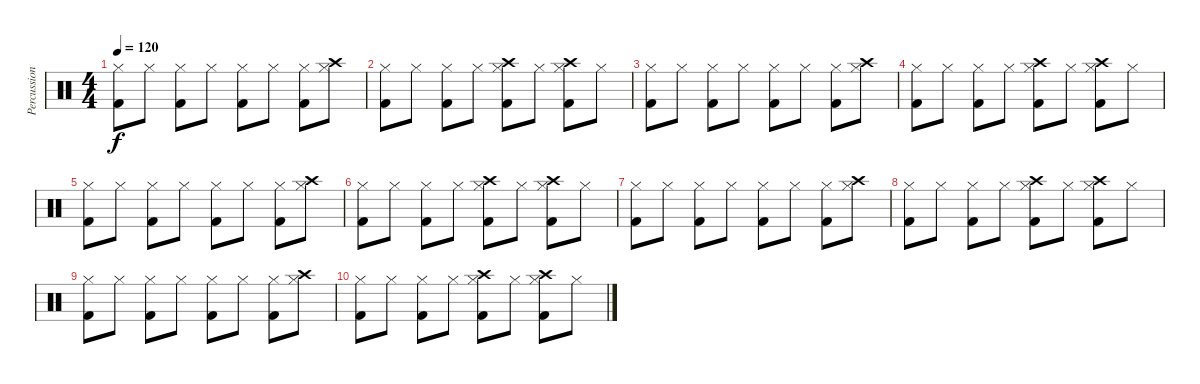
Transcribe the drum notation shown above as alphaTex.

\track ("Percussion" "Percussion") {instrument percussion}
\staff {score}
\articulation defaults
\ts (4 4)
\tempo 120
\clef neutral
\ks c
("Hi-Hat (closed)" "Kick (hit) 2").8{dy f volume 10} "Hi-Hat (closed)".8 ("Hi-Hat (closed)" "Kick (hit) 2").8 "Hi-Hat (closed)".8 ("Hi-Hat (closed)" "Kick (hit) 2").8 "Hi-Hat (closed)".8 ("Hi-Hat (closed)" "Kick (hit) 2").8 ("Hi-Hat (closed)" "Crash high (hit)").8 |
("Hi-Hat (closed)" "Kick (hit) 2").8 "Hi-Hat (closed)".8 ("Hi-Hat (closed)" "Kick (hit) 2").8 "Hi-Hat (closed)".8 ("Hi-Hat (closed)" "Kick (hit) 2" "Crash high (hit)").8 "Hi-Hat (closed)".8 ("Hi-Hat (closed)" "Kick (hit) 2" "Crash high (hit)").8 "Hi-Hat (closed)".8 |
("Hi-Hat (closed)" "Kick (hit) 2").8{volume 10} "Hi-Hat (closed)".8 ("Hi-Hat (closed)" "Kick (hit) 2").8 "Hi-Hat (closed)".8 ("Hi-Hat (closed)" "Kick (hit) 2").8 "Hi-Hat (closed)".8 ("Hi-Hat (closed)" "Kick (hit) 2").8 ("Hi-Hat (closed)" "Crash high (hit)").8 |
("Hi-Hat (closed)" "Kick (hit) 2").8 "Hi-Hat (closed)".8 ("Hi-Hat (closed)" "Kick (hit) 2").8 "Hi-Hat (closed)".8 ("Hi-Hat (closed)" "Kick (hit) 2" "Crash high (hit)").8 "Hi-Hat (closed)".8 ("Hi-Hat (closed)" "Kick (hit) 2" "Crash high (hit)").8 "Hi-Hat (closed)".8 |
("Hi-Hat (closed)" "Kick (hit) 2").8{volume 8} "Hi-Hat (closed)".8 ("Hi-Hat (closed)" "Kick (hit) 2").8 "Hi-Hat (closed)".8 ("Hi-Hat (closed)" "Kick (hit) 2").8 "Hi-Hat (closed)".8 ("Hi-Hat (closed)" "Kick (hit) 2").8 ("Hi-Hat (closed)" "Crash high (hit)").8 |
("Hi-Hat (closed)" "Kick (hit) 2").8 "Hi-Hat (closed)".8 ("Hi-Hat (closed)" "Kick (hit) 2").8 "Hi-Hat (closed)".8 ("Hi-Hat (closed)" "Kick (hit) 2" "Crash high (hit)").8 "Hi-Hat (closed)".8 ("Hi-Hat (closed)" "Kick (hit) 2" "Crash high (hit)").8 "Hi-Hat (closed)".8 |
("Hi-Hat (closed)" "Kick (hit) 2").8{volume 6} "Hi-Hat (closed)".8 ("Hi-Hat (closed)" "Kick (hit) 2").8 "Hi-Hat (closed)".8 ("Hi-Hat (closed)" "Kick (hit) 2").8 "Hi-Hat (closed)".8 ("Hi-Hat (closed)" "Kick (hit) 2").8 ("Hi-Hat (closed)" "Crash high (hit)").8 |
("Hi-Hat (closed)" "Kick (hit) 2").8 "Hi-Hat (closed)".8 ("Hi-Hat (closed)" "Kick (hit) 2").8 "Hi-Hat (closed)".8 ("Hi-Hat (closed)" "Kick (hit) 2" "Crash high (hit)").8 "Hi-Hat (closed)".8 ("Hi-Hat (closed)" "Kick (hit) 2" "Crash high (hit)").8 "Hi-Hat (closed)".8 |
("Hi-Hat (closed)" "Kick (hit) 2").8{volume 0} "Hi-Hat (closed)".8 ("Hi-Hat (closed)" "Kick (hit) 2").8 "Hi-Hat (closed)".8 ("Hi-Hat (closed)" "Kick (hit) 2").8 "Hi-Hat (closed)".8 ("Hi-Hat (closed)" "Kick (hit) 2").8 ("Hi-Hat (closed)" "Crash high (hit)").8 |
("Hi-Hat (closed)" "Kick (hit) 2").8 "Hi-Hat (closed)".8 ("Hi-Hat (closed)" "Kick (hit) 2").8 "Hi-Hat (closed)".8 ("Hi-Hat (closed)" "Kick (hit) 2" "Crash high (hit)").8 "Hi-Hat (closed)".8 ("Hi-Hat (closed)" "Kick (hit) 2" "Crash high (hit)").8 "Hi-Hat (closed)".8
